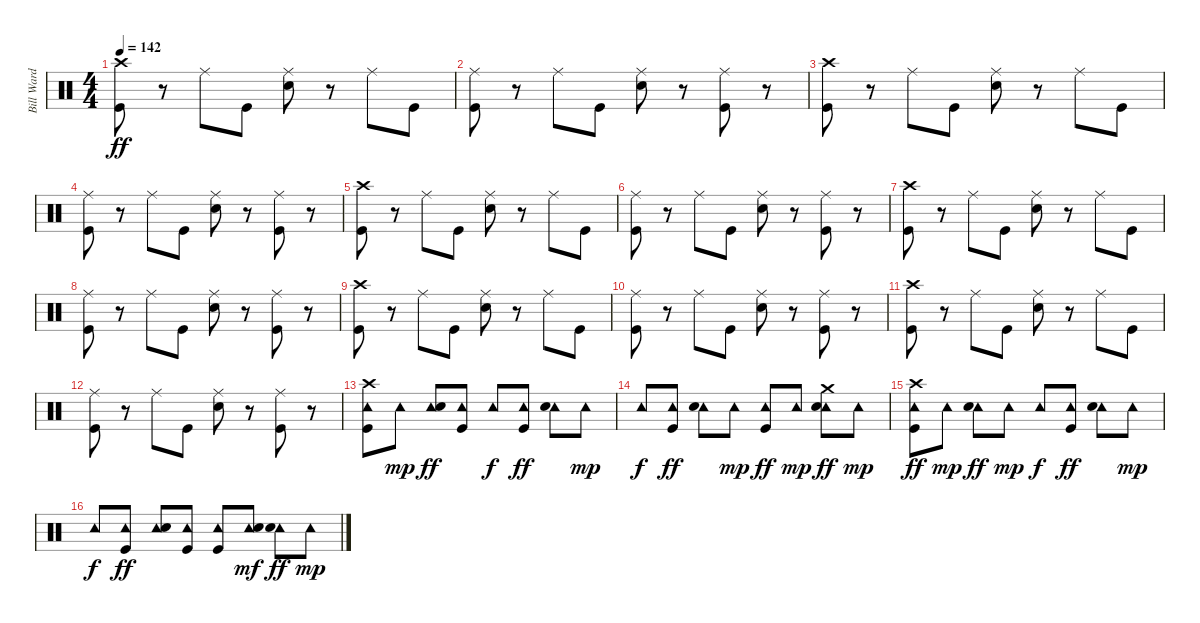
\track ("Bill Ward" "Bill Ward") {instrument percussion}
\staff {score}
\articulation defaults
\ts (4 4)
\tempo 142
\clef neutral
\ks c
("Crash high (hit)" "Kick (hit)").8{dy ff} r.8 "Ride (middle)".8 "Kick (hit)".8 ("Ride (middle)" "Snare (hit) 2").8 r.8 "Ride (middle)".8 "Kick (hit)".8 |
("Ride (middle)" "Kick (hit)").8 r.8 "Ride (middle)".8 "Kick (hit)".8 ("Ride (middle)" "Snare (hit) 2").8 r.8 ("Ride (middle)" "Kick (hit)").8 r.8 |
("Crash high (hit)" "Kick (hit)").8 r.8 "Ride (middle)".8 "Kick (hit)".8 ("Ride (middle)" "Snare (hit) 2").8 r.8 "Ride (middle)".8 "Kick (hit)".8 |
("Ride (middle)" "Kick (hit)").8 r.8 "Ride (middle)".8 "Kick (hit)".8 ("Ride (middle)" "Snare (hit) 2").8 r.8 ("Ride (middle)" "Kick (hit)").8 r.8 |
("Crash high (hit)" "Kick (hit)").8 r.8 "Ride (middle)".8 "Kick (hit)".8 ("Ride (middle)" "Snare (hit) 2").8 r.8 "Ride (middle)".8 "Kick (hit)".8 |
("Ride (middle)" "Kick (hit)").8 r.8 "Ride (middle)".8 "Kick (hit)".8 ("Ride (middle)" "Snare (hit) 2").8 r.8 ("Ride (middle)" "Kick (hit)").8 r.8 |
("Crash high (hit)" "Kick (hit)").8 r.8 "Ride (middle)".8 "Kick (hit)".8 ("Ride (middle)" "Snare (hit) 2").8 r.8 "Ride (middle)".8 "Kick (hit)".8 |
("Ride (middle)" "Kick (hit)").8 r.8 "Ride (middle)".8 "Kick (hit)".8 ("Ride (middle)" "Snare (hit) 2").8 r.8 ("Ride (middle)" "Kick (hit)").8 r.8 |
("Crash high (hit)" "Kick (hit)").8 r.8 "Ride (middle)".8 "Kick (hit)".8 ("Ride (middle)" "Snare (hit) 2").8 r.8 "Ride (middle)".8 "Kick (hit)".8 |
("Ride (middle)" "Kick (hit)").8 r.8 "Ride (middle)".8 "Kick (hit)".8 ("Ride (middle)" "Snare (hit) 2").8 r.8 ("Ride (middle)" "Kick (hit)").8 r.8 |
("Crash high (hit)" "Kick (hit)").8 r.8 "Ride (middle)".8 "Kick (hit)".8 ("Ride (middle)" "Snare (hit) 2").8 r.8 "Ride (middle)".8 "Kick (hit)".8 |
("Ride (middle)" "Kick (hit)").8 r.8 "Ride (middle)".8 "Kick (hit)".8 ("Ride (middle)" "Snare (hit) 2").8 r.8 ("Ride (middle)" "Kick (hit)").8 r.8 |
("Crash high (hit)" "Tambourine (hit)" "Kick (hit)").8 "Tambourine (hit)".8{dy mp} ("Tambourine (hit)" "Snare (hit) 2").8{dy ff} ("Tambourine (hit)" "Kick (hit)").8 "Tambourine (hit)".8{dy f} ("Tambourine (hit)" "Kick (hit)").8{dy ff} ("Tambourine (hit)" "Snare (hit) 2").8 "Tambourine (hit)".8{dy mp} |
"Tambourine (hit)".8{dy f} ("Tambourine (hit)" "Kick (hit)").8{dy ff} ("Tambourine (hit)" "Snare (hit) 2").8 "Tambourine (hit)".8{dy mp} ("Tambourine (hit)" "Kick (hit)").8{dy ff} "Tambourine (hit)".8{dy mp} ("Crash medium (hit)" "Tambourine (hit)" "Snare (hit) 2").8{dy ff} "Tambourine (hit)".8{dy mp} |
("Crash high (hit)" "Tambourine (hit)" "Kick (hit)").8{dy ff} "Tambourine (hit)".8{dy mp} ("Tambourine (hit)" "Snare (hit) 2").8{dy ff} "Tambourine (hit)".8{dy mp} "Tambourine (hit)".8{dy f} ("Tambourine (hit)" "Kick (hit)").8{dy ff} ("Tambourine (hit)" "Snare (hit) 2").8 "Tambourine (hit)".8{dy mp} |
"Tambourine (hit)".8{dy f} ("Tambourine (hit)" "Kick (hit)").8{dy ff} ("Tambourine (hit)" "Snare (hit) 2").8 ("Tambourine (hit)" "Kick (hit)").8 ("Tambourine (hit)" "Kick (hit)").8 ("Tambourine (hit)" "Snare (hit) 2").8{dy mf} ("Tambourine (hit)" "Snare (hit) 2").8{dy ff} "Tambourine (hit)".8{dy mp}
